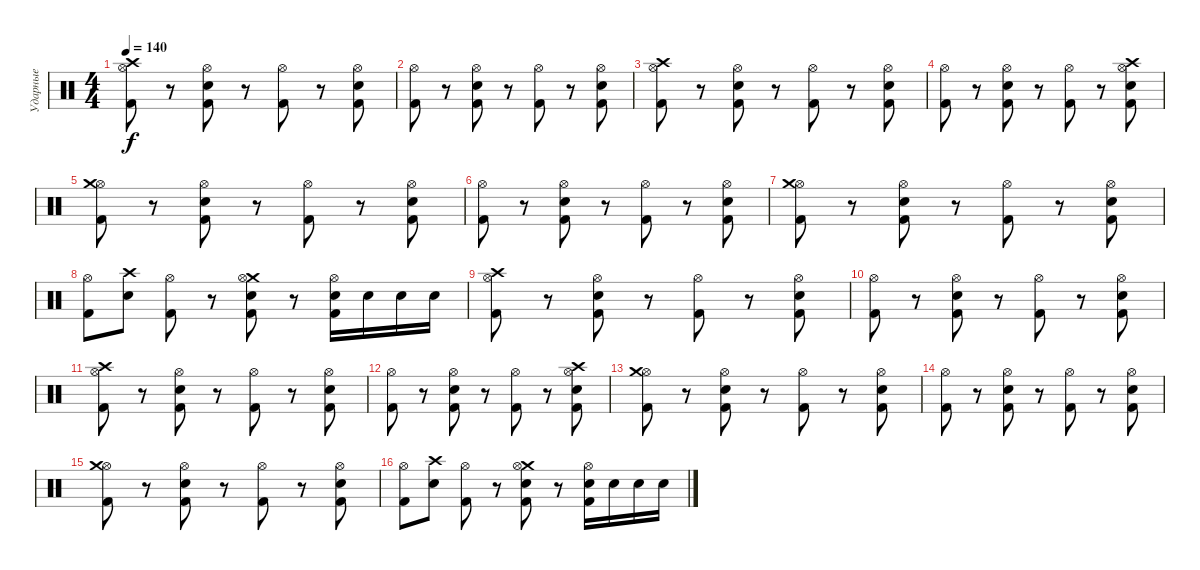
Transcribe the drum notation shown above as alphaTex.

\track ("Ударные" "Ударные") {instrument percussion}
\staff {score}
\articulation defaults
\ts (4 4)
\tempo 140
\clef neutral
\ks c
("Hi-Hat (open)" "Crash high (hit)" "Kick (hit) 2").8{dy f} r.8 ("Hi-Hat (open)" "Electric Snare (hit)" "Kick (hit) 2").8 r.8 ("Hi-Hat (open)" "Kick (hit) 2").8 r.8 ("Hi-Hat (open)" "Electric Snare (hit)" "Kick (hit) 2").8 |
("Hi-Hat (open)" "Kick (hit) 2").8 r.8 ("Hi-Hat (open)" "Electric Snare (hit)" "Kick (hit) 2").8 r.8 ("Hi-Hat (open)" "Kick (hit) 2").8 r.8 ("Hi-Hat (open)" "Electric Snare (hit)" "Kick (hit) 2").8 |
("Hi-Hat (open)" "Crash high (hit)" "Kick (hit) 2").8 r.8 ("Hi-Hat (open)" "Electric Snare (hit)" "Kick (hit) 2").8 r.8 ("Hi-Hat (open)" "Kick (hit) 2").8 r.8 ("Hi-Hat (open)" "Electric Snare (hit)" "Kick (hit) 2").8 |
("Hi-Hat (open)" "Kick (hit) 2").8 r.8 ("Hi-Hat (open)" "Electric Snare (hit)" "Kick (hit) 2").8 r.8 ("Hi-Hat (open)" "Kick (hit) 2").8 r.8 ("Hi-Hat (open)" "Crash high (hit)" "Electric Snare (hit)" "Kick (hit) 2").8 |
("Hi-Hat (open)" "Crash medium (hit)" "Kick (hit) 2").8 r.8 ("Hi-Hat (open)" "Electric Snare (hit)" "Kick (hit) 2").8 r.8 ("Hi-Hat (open)" "Kick (hit) 2").8 r.8 ("Hi-Hat (open)" "Electric Snare (hit)" "Kick (hit) 2").8 |
("Hi-Hat (open)" "Kick (hit) 2").8 r.8 ("Hi-Hat (open)" "Electric Snare (hit)" "Kick (hit) 2").8 r.8 ("Hi-Hat (open)" "Kick (hit) 2").8 r.8 ("Hi-Hat (open)" "Electric Snare (hit)" "Kick (hit) 2").8 |
("Hi-Hat (open)" "Crash medium (hit)" "Kick (hit) 2").8 r.8 ("Hi-Hat (open)" "Electric Snare (hit)" "Kick (hit) 2").8 r.8 ("Hi-Hat (open)" "Kick (hit) 2").8 r.8 ("Hi-Hat (open)" "Electric Snare (hit)" "Kick (hit) 2").8 |
("Hi-Hat (open)" "Kick (hit) 2").8 ("Crash high (hit)" "Electric Snare (hit)").8 ("Hi-Hat (open)" "Kick (hit) 2").8 r.8 ("Crash medium (hit)" "Hi-Hat (open)" "Kick (hit) 2" "Electric Snare (hit)").8 r.8 ("Hi-Hat (open)" "Kick (hit) 2" "Electric Snare (hit)").16 "Electric Snare (hit)".16 "Electric Snare (hit)".16 "Electric Snare (hit)".16 |
("Hi-Hat (open)" "Crash high (hit)" "Kick (hit) 2").8 r.8 ("Hi-Hat (open)" "Electric Snare (hit)" "Kick (hit) 2").8 r.8 ("Hi-Hat (open)" "Kick (hit) 2").8 r.8 ("Hi-Hat (open)" "Electric Snare (hit)" "Kick (hit) 2").8 |
("Hi-Hat (open)" "Kick (hit) 2").8 r.8 ("Hi-Hat (open)" "Electric Snare (hit)" "Kick (hit) 2").8 r.8 ("Hi-Hat (open)" "Kick (hit) 2").8 r.8 ("Hi-Hat (open)" "Electric Snare (hit)" "Kick (hit) 2").8 |
("Hi-Hat (open)" "Crash high (hit)" "Kick (hit) 2").8 r.8 ("Hi-Hat (open)" "Electric Snare (hit)" "Kick (hit) 2").8 r.8 ("Hi-Hat (open)" "Kick (hit) 2").8 r.8 ("Hi-Hat (open)" "Electric Snare (hit)" "Kick (hit) 2").8 |
("Hi-Hat (open)" "Kick (hit) 2").8 r.8 ("Hi-Hat (open)" "Electric Snare (hit)" "Kick (hit) 2").8 r.8 ("Hi-Hat (open)" "Kick (hit) 2").8 r.8 ("Hi-Hat (open)" "Crash high (hit)" "Electric Snare (hit)" "Kick (hit) 2").8 |
("Hi-Hat (open)" "Crash medium (hit)" "Kick (hit) 2").8 r.8 ("Hi-Hat (open)" "Electric Snare (hit)" "Kick (hit) 2").8 r.8 ("Hi-Hat (open)" "Kick (hit) 2").8 r.8 ("Hi-Hat (open)" "Electric Snare (hit)" "Kick (hit) 2").8 |
("Hi-Hat (open)" "Kick (hit) 2").8 r.8 ("Hi-Hat (open)" "Electric Snare (hit)" "Kick (hit) 2").8 r.8 ("Hi-Hat (open)" "Kick (hit) 2").8 r.8 ("Hi-Hat (open)" "Electric Snare (hit)" "Kick (hit) 2").8 |
("Hi-Hat (open)" "Crash medium (hit)" "Kick (hit) 2").8 r.8 ("Hi-Hat (open)" "Electric Snare (hit)" "Kick (hit) 2").8 r.8 ("Hi-Hat (open)" "Kick (hit) 2").8 r.8 ("Hi-Hat (open)" "Electric Snare (hit)" "Kick (hit) 2").8 |
("Hi-Hat (open)" "Kick (hit) 2").8 ("Crash high (hit)" "Electric Snare (hit)").8 ("Hi-Hat (open)" "Kick (hit) 2").8 r.8 ("Crash medium (hit)" "Hi-Hat (open)" "Kick (hit) 2" "Electric Snare (hit)").8 r.8 ("Hi-Hat (open)" "Kick (hit) 2" "Electric Snare (hit)").16 "Electric Snare (hit)".16 "Electric Snare (hit)".16 "Electric Snare (hit)".16
